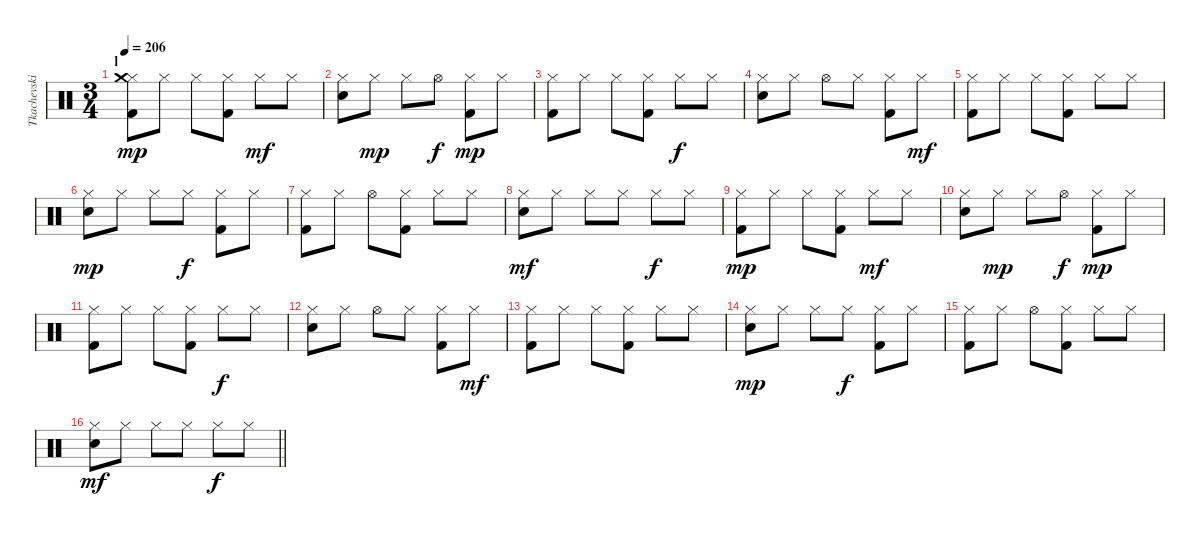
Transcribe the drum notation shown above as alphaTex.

\track ("Tkachevskiy A" "Tkachevski") {instrument percussion}
\staff {score}
\articulation defaults
\ts (3 4)
\section ("" "l")
\tempo 206
\clef neutral
\ks c
("Hi-Hat (closed)" "Crash medium (hit)" "Kick (hit) 2").8{dy mp} "Hi-Hat (closed)".8 "Hi-Hat (closed)".8 ("Hi-Hat (closed)" "Kick (hit) 2").8 "Hi-Hat (closed)".8{dy mf} "Hi-Hat (closed)".8 |
("Hi-Hat (closed)" "Snare (hit) 2").8 "Hi-Hat (closed)".8{dy mp} "Hi-Hat (closed)".8 "Hi-Hat (open)".8{dy f} ("Hi-Hat (closed)" "Kick (hit) 2").8{dy mp} "Hi-Hat (closed)".8 |
("Hi-Hat (closed)" "Kick (hit) 2").8 "Hi-Hat (closed)".8 "Hi-Hat (closed)".8 ("Hi-Hat (closed)" "Kick (hit) 2").8 "Hi-Hat (closed)".8{dy f} "Hi-Hat (closed)".8 |
("Hi-Hat (closed)" "Snare (hit) 2").8 "Hi-Hat (closed)".8 "Hi-Hat (open)".8 "Hi-Hat (closed)".8 ("Hi-Hat (closed)" "Kick (hit) 2").8 "Hi-Hat (closed)".8{dy mf} |
("Hi-Hat (closed)" "Kick (hit) 2").8 "Hi-Hat (closed)".8 "Hi-Hat (closed)".8 ("Hi-Hat (closed)" "Kick (hit) 2").8 "Hi-Hat (closed)".8 "Hi-Hat (closed)".8 |
("Hi-Hat (closed)" "Snare (hit) 2").8{dy mp} "Hi-Hat (closed)".8 "Hi-Hat (closed)".8 "Hi-Hat (closed)".8{dy f} ("Hi-Hat (closed)" "Kick (hit) 2").8 "Hi-Hat (closed)".8 |
("Hi-Hat (closed)" "Kick (hit) 2").8 "Hi-Hat (closed)".8 "Hi-Hat (open)".8 ("Hi-Hat (closed)" "Kick (hit) 2").8 "Hi-Hat (closed)".8 "Hi-Hat (closed)".8 |
("Hi-Hat (closed)" "Snare (hit) 2").8{dy mf} "Hi-Hat (closed)".8 "Hi-Hat (closed)".8 "Hi-Hat (closed)".8 "Hi-Hat (closed)".8{dy f} "Hi-Hat (closed)".8 |
("Hi-Hat (closed)" "Kick (hit) 2").8{dy mp} "Hi-Hat (closed)".8 "Hi-Hat (closed)".8 ("Hi-Hat (closed)" "Kick (hit) 2").8 "Hi-Hat (closed)".8{dy mf} "Hi-Hat (closed)".8 |
("Hi-Hat (closed)" "Snare (hit) 2").8 "Hi-Hat (closed)".8{dy mp} "Hi-Hat (closed)".8 "Hi-Hat (open)".8{dy f} ("Hi-Hat (closed)" "Kick (hit) 2").8{dy mp} "Hi-Hat (closed)".8 |
("Hi-Hat (closed)" "Kick (hit) 2").8 "Hi-Hat (closed)".8 "Hi-Hat (closed)".8 ("Hi-Hat (closed)" "Kick (hit) 2").8 "Hi-Hat (closed)".8{dy f} "Hi-Hat (closed)".8 |
("Hi-Hat (closed)" "Snare (hit) 2").8 "Hi-Hat (closed)".8 "Hi-Hat (open)".8 "Hi-Hat (closed)".8 ("Hi-Hat (closed)" "Kick (hit) 2").8 "Hi-Hat (closed)".8{dy mf} |
("Hi-Hat (closed)" "Kick (hit) 2").8 "Hi-Hat (closed)".8 "Hi-Hat (closed)".8 ("Hi-Hat (closed)" "Kick (hit) 2").8 "Hi-Hat (closed)".8 "Hi-Hat (closed)".8 |
("Hi-Hat (closed)" "Snare (hit) 2").8{dy mp} "Hi-Hat (closed)".8 "Hi-Hat (closed)".8 "Hi-Hat (closed)".8{dy f} ("Hi-Hat (closed)" "Kick (hit) 2").8 "Hi-Hat (closed)".8 |
("Hi-Hat (closed)" "Kick (hit) 2").8 "Hi-Hat (closed)".8 "Hi-Hat (open)".8 ("Hi-Hat (closed)" "Kick (hit) 2").8 "Hi-Hat (closed)".8 "Hi-Hat (closed)".8 |
\barLineRight lightlight
("Hi-Hat (closed)" "Snare (hit) 2").8{dy mf} "Hi-Hat (closed)".8 "Hi-Hat (closed)".8 "Hi-Hat (closed)".8 "Hi-Hat (closed)".8{dy f} "Hi-Hat (closed)".8
